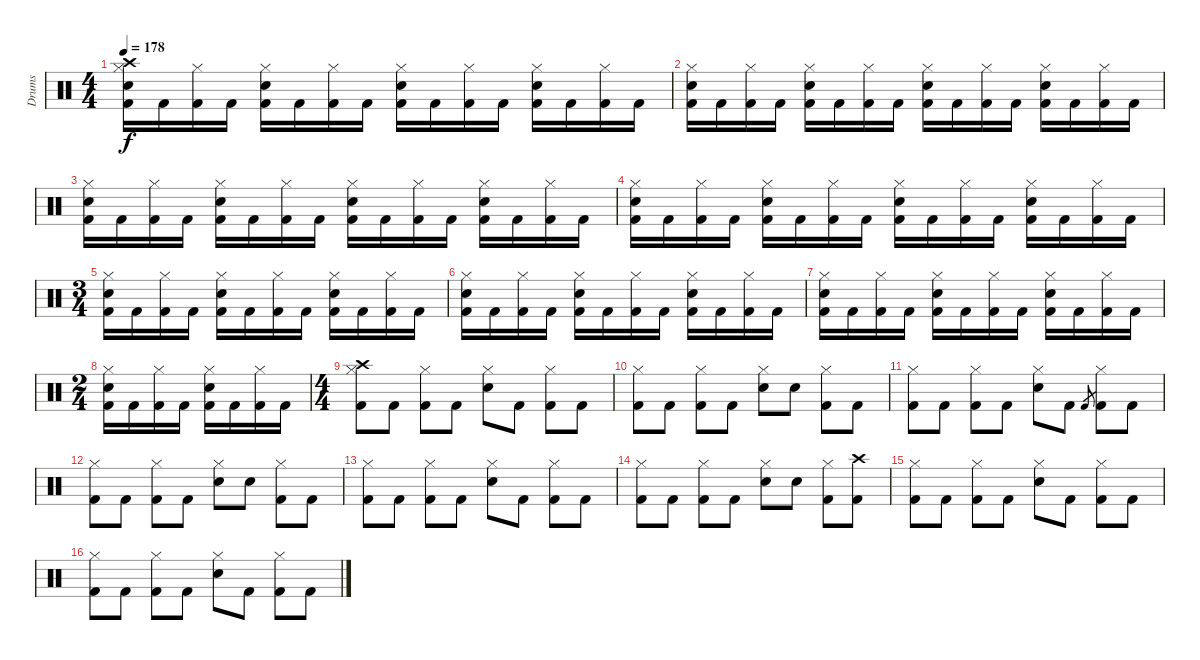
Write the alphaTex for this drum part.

\track ("Drums" "Drums") {instrument percussion}
\staff {score}
\articulation defaults
\ts (4 4)
\tempo 178
\clef neutral
\ks c
("Kick (hit) 2" "Snare (hit) 2" "Hi-Hat (closed)" "Crash high (hit)").16{dy f} "Kick (hit) 2".16 ("Kick (hit) 2" "Hi-Hat (closed)").16 "Kick (hit) 2".16 ("Kick (hit) 2" "Snare (hit) 2" "Hi-Hat (closed)").16 "Kick (hit) 2".16 ("Kick (hit) 2" "Hi-Hat (closed)").16 "Kick (hit) 2".16 ("Kick (hit) 2" "Snare (hit) 2" "Hi-Hat (closed)").16 "Kick (hit) 2".16 ("Kick (hit) 2" "Hi-Hat (closed)").16 "Kick (hit) 2".16 ("Kick (hit) 2" "Snare (hit) 2" "Hi-Hat (closed)").16 "Kick (hit) 2".16 ("Kick (hit) 2" "Hi-Hat (closed)").16 "Kick (hit) 2".16 |
("Kick (hit) 2" "Snare (hit) 2" "Hi-Hat (closed)").16 "Kick (hit) 2".16 ("Kick (hit) 2" "Hi-Hat (closed)").16 "Kick (hit) 2".16 ("Kick (hit) 2" "Snare (hit) 2" "Hi-Hat (closed)").16 "Kick (hit) 2".16 ("Kick (hit) 2" "Hi-Hat (closed)").16 "Kick (hit) 2".16 ("Kick (hit) 2" "Snare (hit) 2" "Hi-Hat (closed)").16 "Kick (hit) 2".16 ("Kick (hit) 2" "Hi-Hat (closed)").16 "Kick (hit) 2".16 ("Kick (hit) 2" "Snare (hit) 2" "Hi-Hat (closed)").16 "Kick (hit) 2".16 ("Kick (hit) 2" "Hi-Hat (closed)").16 "Kick (hit) 2".16 |
("Kick (hit) 2" "Snare (hit) 2" "Hi-Hat (closed)").16 "Kick (hit) 2".16 ("Kick (hit) 2" "Hi-Hat (closed)").16 "Kick (hit) 2".16 ("Kick (hit) 2" "Snare (hit) 2" "Hi-Hat (closed)").16 "Kick (hit) 2".16 ("Kick (hit) 2" "Hi-Hat (closed)").16 "Kick (hit) 2".16 ("Kick (hit) 2" "Snare (hit) 2" "Hi-Hat (closed)").16 "Kick (hit) 2".16 ("Kick (hit) 2" "Hi-Hat (closed)").16 "Kick (hit) 2".16 ("Kick (hit) 2" "Snare (hit) 2" "Hi-Hat (closed)").16 "Kick (hit) 2".16 ("Kick (hit) 2" "Hi-Hat (closed)").16 "Kick (hit) 2".16 |
("Kick (hit) 2" "Snare (hit) 2" "Hi-Hat (closed)").16 "Kick (hit) 2".16 ("Kick (hit) 2" "Hi-Hat (closed)").16 "Kick (hit) 2".16 ("Kick (hit) 2" "Snare (hit) 2" "Hi-Hat (closed)").16 "Kick (hit) 2".16 ("Kick (hit) 2" "Hi-Hat (closed)").16 "Kick (hit) 2".16 ("Kick (hit) 2" "Snare (hit) 2" "Hi-Hat (closed)").16 "Kick (hit) 2".16 ("Kick (hit) 2" "Hi-Hat (closed)").16 "Kick (hit) 2".16 ("Kick (hit) 2" "Snare (hit) 2" "Hi-Hat (closed)").16 "Kick (hit) 2".16 ("Kick (hit) 2" "Hi-Hat (closed)").16 "Kick (hit) 2".16 |
\ts (3 4)
("Kick (hit) 2" "Snare (hit) 2" "Hi-Hat (closed)").16 "Kick (hit) 2".16 ("Kick (hit) 2" "Hi-Hat (closed)").16 "Kick (hit) 2".16 ("Kick (hit) 2" "Snare (hit) 2" "Hi-Hat (closed)").16 "Kick (hit) 2".16 ("Kick (hit) 2" "Hi-Hat (closed)").16 "Kick (hit) 2".16 ("Kick (hit) 2" "Snare (hit) 2" "Hi-Hat (closed)").16 "Kick (hit) 2".16 ("Kick (hit) 2" "Hi-Hat (closed)").16 "Kick (hit) 2".16 |
("Kick (hit) 2" "Snare (hit) 2" "Hi-Hat (closed)").16 "Kick (hit) 2".16 ("Kick (hit) 2" "Hi-Hat (closed)").16 "Kick (hit) 2".16 ("Kick (hit) 2" "Snare (hit) 2" "Hi-Hat (closed)").16 "Kick (hit) 2".16 ("Kick (hit) 2" "Hi-Hat (closed)").16 "Kick (hit) 2".16 ("Kick (hit) 2" "Snare (hit) 2" "Hi-Hat (closed)").16 "Kick (hit) 2".16 ("Kick (hit) 2" "Hi-Hat (closed)").16 "Kick (hit) 2".16 |
("Kick (hit) 2" "Snare (hit) 2" "Hi-Hat (closed)").16 "Kick (hit) 2".16 ("Kick (hit) 2" "Hi-Hat (closed)").16 "Kick (hit) 2".16 ("Kick (hit) 2" "Snare (hit) 2" "Hi-Hat (closed)").16 "Kick (hit) 2".16 ("Kick (hit) 2" "Hi-Hat (closed)").16 "Kick (hit) 2".16 ("Kick (hit) 2" "Snare (hit) 2" "Hi-Hat (closed)").16 "Kick (hit) 2".16 ("Kick (hit) 2" "Hi-Hat (closed)").16 "Kick (hit) 2".16 |
\ts (2 4)
("Kick (hit) 2" "Snare (hit) 2" "Hi-Hat (closed)").16 "Kick (hit) 2".16 ("Kick (hit) 2" "Hi-Hat (closed)").16 "Kick (hit) 2".16 ("Kick (hit) 2" "Snare (hit) 2" "Hi-Hat (closed)").16 "Kick (hit) 2".16 ("Kick (hit) 2" "Hi-Hat (closed)").16 "Kick (hit) 2".16 |
\ts (4 4)
("Kick (hit) 2" "Hi-Hat (closed)" "Crash high (hit)").8 "Kick (hit) 2".8 ("Kick (hit) 2" "Hi-Hat (closed)").8 "Kick (hit) 2".8 ("Snare (hit) 2" "Hi-Hat (closed)").8 "Kick (hit) 2".8 ("Kick (hit) 2" "Hi-Hat (closed)").8 "Kick (hit) 2".8 |
("Kick (hit) 2" "Hi-Hat (closed)").8 "Kick (hit) 2".8 ("Kick (hit) 2" "Hi-Hat (closed)").8 "Kick (hit) 2".8 ("Snare (hit) 2" "Hi-Hat (closed)").8 "Snare (hit) 2".8 ("Kick (hit) 2" "Hi-Hat (closed)").8 "Kick (hit) 2".8 |
("Kick (hit) 2" "Hi-Hat (closed)").8 "Kick (hit) 2".8 ("Kick (hit) 2" "Hi-Hat (closed)").8 "Kick (hit) 2".8 ("Snare (hit) 2" "Hi-Hat (closed)").8 "Kick (hit) 2".8 "Kick (hit) 2".8{gr} ("Kick (hit) 2" "Hi-Hat (closed)").8 "Kick (hit) 2".8 |
("Kick (hit) 2" "Hi-Hat (closed)").8 "Kick (hit) 2".8 ("Kick (hit) 2" "Hi-Hat (closed)").8 "Kick (hit) 2".8 ("Snare (hit) 2" "Hi-Hat (closed)").8 "Snare (hit) 2".8 ("Kick (hit) 2" "Hi-Hat (closed)").8 "Kick (hit) 2".8 |
("Kick (hit) 2" "Hi-Hat (closed)").8 "Kick (hit) 2".8 ("Kick (hit) 2" "Hi-Hat (closed)").8 "Kick (hit) 2".8 ("Snare (hit) 2" "Hi-Hat (closed)").8 "Kick (hit) 2".8 ("Kick (hit) 2" "Hi-Hat (closed)").8 "Kick (hit) 2".8 |
("Kick (hit) 2" "Hi-Hat (closed)").8 "Kick (hit) 2".8 ("Kick (hit) 2" "Hi-Hat (closed)").8 "Kick (hit) 2".8 ("Snare (hit) 2" "Hi-Hat (closed)").8 "Snare (hit) 2".8 ("Kick (hit) 2" "Hi-Hat (closed)").8 ("Kick (hit) 2" "Crash high (hit)").8 |
("Kick (hit) 2" "Hi-Hat (closed)").8 "Kick (hit) 2".8 ("Kick (hit) 2" "Hi-Hat (closed)").8 "Kick (hit) 2".8 ("Snare (hit) 2" "Hi-Hat (closed)").8 "Kick (hit) 2".8 ("Kick (hit) 2" "Hi-Hat (closed)").8 "Kick (hit) 2".8 |
("Kick (hit) 2" "Hi-Hat (closed)").8 "Kick (hit) 2".8 ("Kick (hit) 2" "Hi-Hat (closed)").8 "Kick (hit) 2".8 ("Snare (hit) 2" "Hi-Hat (closed)").8 "Kick (hit) 2".8 ("Kick (hit) 2" "Hi-Hat (closed)").8 "Kick (hit) 2".8
